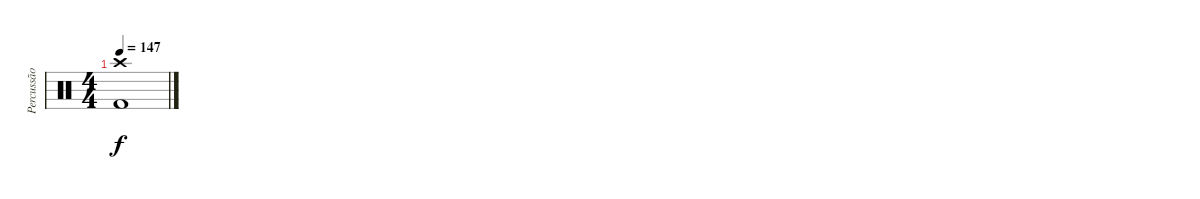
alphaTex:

\track ("Percussão" "Percussão") {instrument percussion}
\staff {score}
\articulation defaults
\ts (4 4)
\tempo 147
\clef neutral
\ks c
("Crash high (hit)" "Kick (hit) 2").1{dy f}
